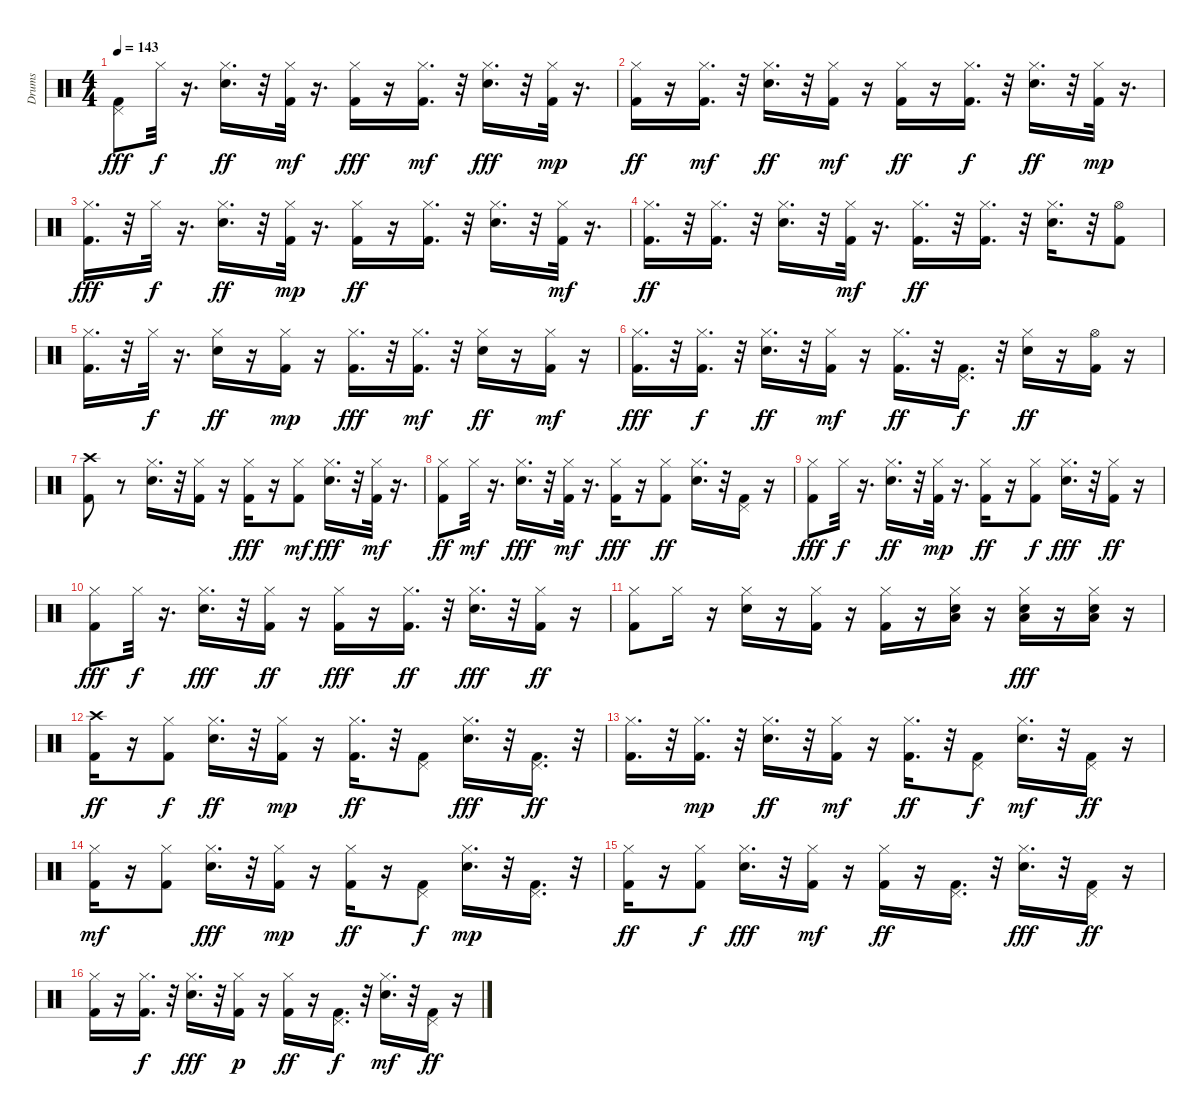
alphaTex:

\track ("Drums               " "Drums     ") {instrument percussion}
\staff {score}
\articulation defaults
\ts (4 4)
\tempo 143
\clef neutral
\ks c
("Kick (hit) 2" "Pedal Hi-Hat (hit)").8{dy fff} "Hi-Hat (closed)".32{dy f} r.16{d} ("Snare (hit) 2" "Hi-Hat (closed)").16{d dy ff} r.32 ("Kick (hit) 2" "Hi-Hat (closed)").32{dy mf} r.16{d} ("Kick (hit) 2" "Hi-Hat (closed)").16{dy fff} r.16 ("Kick (hit) 2" "Hi-Hat (closed)").16{d dy mf} r.32 ("Snare (hit) 2" "Hi-Hat (closed)").16{d dy fff} r.32 ("Kick (hit) 2" "Hi-Hat (closed)").32{dy mp} r.16{d} |
("Kick (hit) 2" "Hi-Hat (closed)").16{dy ff} r.16 ("Kick (hit) 2" "Hi-Hat (closed)").16{d dy mf} r.32 ("Snare (hit) 2" "Hi-Hat (closed)").16{d dy ff} r.32 ("Kick (hit) 2" "Hi-Hat (closed)").16{dy mf} r.16 ("Kick (hit) 2" "Hi-Hat (closed)").16{dy ff} r.16 ("Kick (hit) 2" "Hi-Hat (closed)").16{d dy f} r.32 ("Snare (hit) 2" "Hi-Hat (closed)").16{d dy ff} r.32 ("Kick (hit) 2" "Hi-Hat (closed)").32{dy mp} r.16{d} |
("Kick (hit) 2" "Hi-Hat (closed)").16{d dy fff} r.32 "Hi-Hat (closed)".32{dy f} r.16{d} ("Snare (hit) 2" "Hi-Hat (closed)").16{d dy ff} r.32 ("Kick (hit) 2" "Hi-Hat (closed)").32{dy mp} r.16{d} ("Kick (hit) 2" "Hi-Hat (closed)").16{dy ff} r.16 ("Kick (hit) 2" "Hi-Hat (closed)").16{d} r.32 ("Snare (hit) 2" "Hi-Hat (closed)").16{d} r.32 ("Kick (hit) 2" "Hi-Hat (closed)").32{dy mf} r.16{d} |
("Kick (hit) 2" "Hi-Hat (closed)").16{d dy ff} r.32 ("Kick (hit) 2" "Hi-Hat (closed)").16{d} r.32 ("Snare (hit) 2" "Hi-Hat (closed)").16{d} r.32 ("Kick (hit) 2" "Hi-Hat (closed)").32{dy mf} r.16{d} ("Kick (hit) 2" "Hi-Hat (closed)").16{d dy ff} r.32 ("Kick (hit) 2" "Hi-Hat (closed)").16{d} r.32 ("Snare (hit) 2" "Hi-Hat (closed)").16{d} r.32 ("Kick (hit) 2" "Hi-Hat (open)").8 |
("Kick (hit) 2" "Hi-Hat (closed)").16{d} r.32 "Hi-Hat (closed)".32{dy f} r.16{d} ("Snare (hit) 2" "Hi-Hat (closed)").16{dy ff} r.16 ("Kick (hit) 2" "Hi-Hat (closed)").16{dy mp} r.16 ("Kick (hit) 2" "Hi-Hat (closed)").16{d dy fff} r.32 ("Kick (hit) 2" "Hi-Hat (closed)").16{d dy mf} r.32 ("Snare (hit) 2" "Hi-Hat (closed)").16{dy ff} r.16 ("Kick (hit) 2" "Hi-Hat (closed)").16{dy mf} r.16 |
("Kick (hit) 2" "Hi-Hat (closed)").16{d dy fff} r.32 ("Kick (hit) 2" "Hi-Hat (closed)").16{d dy f} r.32 ("Snare (hit) 2" "Hi-Hat (closed)").16{d dy ff} r.32 ("Kick (hit) 2" "Hi-Hat (closed)").16{dy mf} r.16 ("Kick (hit) 2" "Hi-Hat (closed)").16{d dy ff} r.32 ("Kick (hit) 2" "Pedal Hi-Hat (hit)").16{d dy f} r.32 ("Snare (hit) 2" "Hi-Hat (closed)").16{dy ff} r.16 ("Kick (hit) 2" "Hi-Hat (open)").16 r.16 |
("Kick (hit) 2" "Crash high (hit)").8 r.8 ("Snare (hit) 2" "Hi-Hat (closed)").16{d} r.32 ("Kick (hit) 2" "Hi-Hat (closed)").16 r.16 ("Kick (hit) 2" "Hi-Hat (closed)").16{dy fff} r.16 ("Kick (hit) 2" "Hi-Hat (closed)").8{dy mf} ("Snare (hit) 2" "Hi-Hat (closed)").16{d dy fff} r.32 ("Kick (hit) 2" "Hi-Hat (closed)").32{dy mf} r.16{d} |
("Kick (hit) 2" "Hi-Hat (closed)").8{dy ff} "Hi-Hat (closed)".32{dy mf} r.16{d} ("Snare (hit) 2" "Hi-Hat (closed)").16{d dy fff} r.32 ("Kick (hit) 2" "Hi-Hat (closed)").32{dy mf} r.16{d} ("Kick (hit) 2" "Hi-Hat (closed)").16{dy fff} r.16 ("Kick (hit) 2" "Hi-Hat (closed)").8{dy ff} ("Snare (hit) 2" "Hi-Hat (closed)").16{d} r.32 ("Kick (hit) 2" "Pedal Hi-Hat (hit)").16 r.16 |
("Kick (hit) 2" "Hi-Hat (closed)").8{dy fff} "Hi-Hat (closed)".32{dy f} r.16{d} ("Snare (hit) 2" "Hi-Hat (closed)").16{d dy ff} r.32 ("Kick (hit) 2" "Hi-Hat (closed)").32{dy mp} r.16{d} ("Kick (hit) 2" "Hi-Hat (closed)").16{dy ff} r.16 ("Kick (hit) 2" "Hi-Hat (closed)").8{dy f} ("Snare (hit) 2" "Hi-Hat (closed)").16{d dy fff} r.32 ("Kick (hit) 2" "Hi-Hat (closed)").16{dy ff} r.16 |
("Kick (hit) 2" "Hi-Hat (closed)").8{dy fff} "Hi-Hat (closed)".32{dy f} r.16{d} ("Snare (hit) 2" "Hi-Hat (closed)").16{d dy fff} r.32 ("Kick (hit) 2" "Hi-Hat (closed)").16{dy ff} r.16 ("Kick (hit) 2" "Hi-Hat (closed)").16{dy fff} r.16 ("Kick (hit) 2" "Hi-Hat (closed)").16{d dy ff} r.32 ("Snare (hit) 2" "Hi-Hat (closed)").16{d dy fff} r.32 ("Kick (hit) 2" "Hi-Hat (closed)").16{dy ff} r.16 |
("Kick (hit) 2" "Hi-Hat (closed)").8 "Hi-Hat (closed)".16 r.16 ("Snare (hit) 2" "Hi-Hat (closed)").16 r.16 ("Kick (hit) 2" "Hi-Hat (closed)").16 r.16 ("Kick (hit) 2" "Hi-Hat (closed)").16 r.16 ("Snare (hit) 2" "Hi-Hat (closed)" "Low Tom (hit)").16 r.16 ("Snare (hit) 2" "Hi-Hat (closed)" "Low Tom (hit)").16{dy fff} r.16 ("Snare (hit) 2" "Hi-Hat (closed)" "Low Tom (hit)").16 r.16 |
("Kick (hit) 2" "Crash high (hit)").16{dy ff} r.16 ("Kick (hit) 2" "Hi-Hat (closed)").8{dy f} ("Snare (hit) 2" "Hi-Hat (closed)").16{d dy ff} r.32 ("Kick (hit) 2" "Hi-Hat (closed)").16{dy mp} r.16 ("Kick (hit) 2" "Hi-Hat (closed)").16{d dy ff} r.32 ("Kick (hit) 2" "Pedal Hi-Hat (hit)").8 ("Snare (hit) 2" "Hi-Hat (closed)").16{d dy fff} r.32 ("Kick (hit) 2" "Pedal Hi-Hat (hit)").16{d dy ff} r.32 |
("Kick (hit) 2" "Hi-Hat (closed)").16{d} r.32 ("Kick (hit) 2" "Hi-Hat (closed)").16{d dy mp} r.32 ("Snare (hit) 2" "Hi-Hat (closed)").16{d dy ff} r.32 ("Kick (hit) 2" "Hi-Hat (closed)").16{dy mf} r.16 ("Kick (hit) 2" "Hi-Hat (closed)").16{d dy ff} r.32 ("Kick (hit) 2" "Pedal Hi-Hat (hit)").8{dy f} ("Snare (hit) 2" "Hi-Hat (closed)").16{d dy mf} r.32 ("Kick (hit) 2" "Pedal Hi-Hat (hit)").16{dy ff} r.16 |
("Kick (hit) 2" "Hi-Hat (closed)").16{dy mf} r.16 ("Kick (hit) 2" "Hi-Hat (closed)").8 ("Snare (hit) 2" "Hi-Hat (closed)").16{d dy fff} r.32 ("Kick (hit) 2" "Hi-Hat (closed)").16{dy mp} r.16 ("Kick (hit) 2" "Hi-Hat (closed)").16{dy ff} r.16 ("Kick (hit) 2" "Pedal Hi-Hat (hit)").8{dy f} ("Snare (hit) 2" "Hi-Hat (closed)").16{d dy mp} r.32 ("Kick (hit) 2" "Pedal Hi-Hat (hit)").16{d} r.32 |
("Kick (hit) 2" "Hi-Hat (closed)").16{dy ff} r.16 ("Kick (hit) 2" "Hi-Hat (closed)").8{dy f} ("Snare (hit) 2" "Hi-Hat (closed)").16{d dy fff} r.32 ("Kick (hit) 2" "Hi-Hat (closed)").16{dy mf} r.16 ("Kick (hit) 2" "Hi-Hat (closed)").16{dy ff} r.16 ("Kick (hit) 2" "Pedal Hi-Hat (hit)").16{d} r.32 ("Snare (hit) 2" "Hi-Hat (closed)").16{d dy fff} r.32 ("Kick (hit) 2" "Pedal Hi-Hat (hit)").16{dy ff} r.16 |
("Kick (hit) 2" "Hi-Hat (closed)").16 r.16 ("Kick (hit) 2" "Hi-Hat (closed)").16{d dy f} r.32 ("Snare (hit) 2" "Hi-Hat (closed)").16{d dy fff} r.32 ("Kick (hit) 2" "Hi-Hat (closed)").16{dy p} r.16 ("Kick (hit) 2" "Hi-Hat (closed)").16{dy ff} r.16 ("Kick (hit) 2" "Pedal Hi-Hat (hit)").16{d dy f} r.32 ("Snare (hit) 2" "Hi-Hat (closed)").16{d dy mf} r.32 ("Kick (hit) 2" "Pedal Hi-Hat (hit)").16{dy ff} r.16
